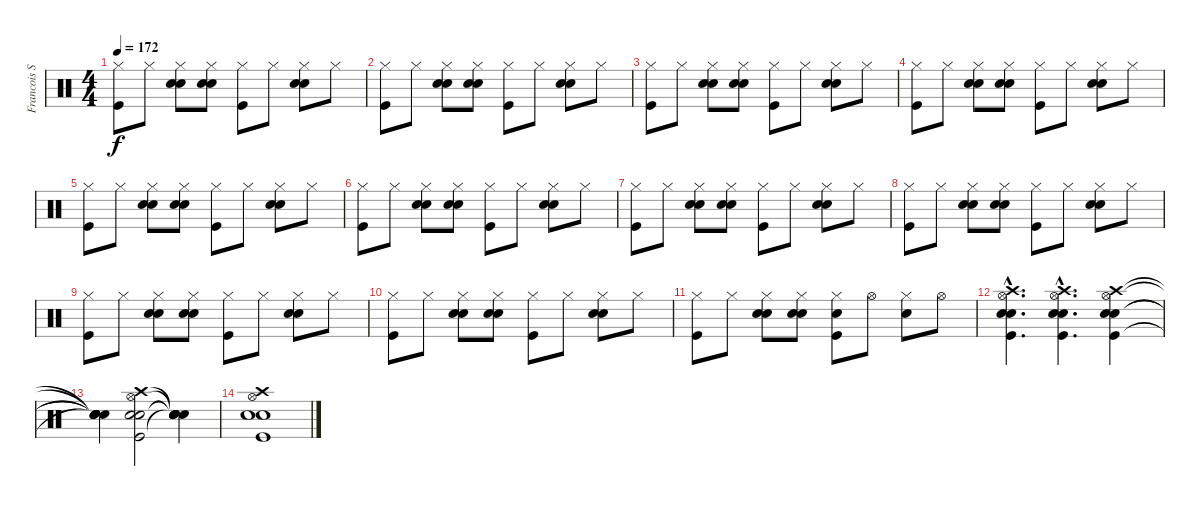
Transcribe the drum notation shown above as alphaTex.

\track ("Francois Soulier" "Francois S") {instrument percussion}
\staff {score}
\articulation defaults
\ts (4 4)
\tempo 172
\clef neutral
\ks c
("Hi-Hat (closed)" "Kick (hit)").8{dy f} "Hi-Hat (closed)".8 ("Electric Snare (hit)" "Hi-Hat (closed)" "Snare (hit) 2").8 ("Electric Snare (hit)" "Hi-Hat (closed)" "Snare (hit) 2").8 ("Hi-Hat (closed)" "Kick (hit)").8 "Hi-Hat (closed)".8 ("Electric Snare (hit)" "Hi-Hat (closed)" "Snare (hit) 2").8 "Hi-Hat (closed)".8 |
("Hi-Hat (closed)" "Kick (hit)").8 "Hi-Hat (closed)".8 ("Electric Snare (hit)" "Hi-Hat (closed)" "Snare (hit) 2").8 ("Electric Snare (hit)" "Hi-Hat (closed)" "Snare (hit) 2").8 ("Hi-Hat (closed)" "Kick (hit)").8 "Hi-Hat (closed)".8 ("Electric Snare (hit)" "Hi-Hat (closed)" "Snare (hit) 2").8 "Hi-Hat (closed)".8 |
("Hi-Hat (closed)" "Kick (hit)").8 "Hi-Hat (closed)".8 ("Electric Snare (hit)" "Hi-Hat (closed)" "Snare (hit) 2").8 ("Electric Snare (hit)" "Hi-Hat (closed)" "Snare (hit) 2").8 ("Hi-Hat (closed)" "Kick (hit)").8 "Hi-Hat (closed)".8 ("Electric Snare (hit)" "Hi-Hat (closed)" "Snare (hit) 2").8 "Hi-Hat (closed)".8 |
("Hi-Hat (closed)" "Kick (hit)").8 "Hi-Hat (closed)".8 ("Electric Snare (hit)" "Hi-Hat (closed)" "Snare (hit) 2").8 ("Electric Snare (hit)" "Hi-Hat (closed)" "Snare (hit) 2").8 ("Hi-Hat (closed)" "Kick (hit)").8 "Hi-Hat (closed)".8 ("Electric Snare (hit)" "Hi-Hat (closed)" "Snare (hit) 2").8 "Hi-Hat (closed)".8 |
("Hi-Hat (closed)" "Kick (hit)").8 "Hi-Hat (closed)".8 ("Electric Snare (hit)" "Hi-Hat (closed)" "Snare (hit) 2").8 ("Electric Snare (hit)" "Hi-Hat (closed)" "Snare (hit) 2").8 ("Hi-Hat (closed)" "Kick (hit)").8 "Hi-Hat (closed)".8 ("Electric Snare (hit)" "Hi-Hat (closed)" "Snare (hit) 2").8 "Hi-Hat (closed)".8 |
("Hi-Hat (closed)" "Kick (hit)").8 "Hi-Hat (closed)".8 ("Electric Snare (hit)" "Hi-Hat (closed)" "Snare (hit) 2").8 ("Electric Snare (hit)" "Hi-Hat (closed)" "Snare (hit) 2").8 ("Hi-Hat (closed)" "Kick (hit)").8 "Hi-Hat (closed)".8 ("Electric Snare (hit)" "Hi-Hat (closed)" "Snare (hit) 2").8 "Hi-Hat (closed)".8 |
("Hi-Hat (closed)" "Kick (hit)").8 "Hi-Hat (closed)".8 ("Electric Snare (hit)" "Hi-Hat (closed)" "Snare (hit) 2").8 ("Electric Snare (hit)" "Hi-Hat (closed)" "Snare (hit) 2").8 ("Hi-Hat (closed)" "Kick (hit)").8 "Hi-Hat (closed)".8 ("Electric Snare (hit)" "Hi-Hat (closed)" "Snare (hit) 2").8 "Hi-Hat (closed)".8 |
("Hi-Hat (closed)" "Kick (hit)").8 "Hi-Hat (closed)".8 ("Electric Snare (hit)" "Hi-Hat (closed)" "Snare (hit) 2").8 ("Electric Snare (hit)" "Hi-Hat (closed)" "Snare (hit) 2").8 ("Hi-Hat (closed)" "Kick (hit)").8 "Hi-Hat (closed)".8 ("Electric Snare (hit)" "Hi-Hat (closed)" "Snare (hit) 2").8 "Hi-Hat (closed)".8 |
("Hi-Hat (closed)" "Kick (hit)").8 "Hi-Hat (closed)".8 ("Electric Snare (hit)" "Hi-Hat (closed)" "Snare (hit) 2").8 ("Electric Snare (hit)" "Hi-Hat (closed)" "Snare (hit) 2").8 ("Hi-Hat (closed)" "Kick (hit)").8 "Hi-Hat (closed)".8 ("Electric Snare (hit)" "Hi-Hat (closed)" "Snare (hit) 2").8 "Hi-Hat (closed)".8 |
("Hi-Hat (closed)" "Kick (hit)").8 "Hi-Hat (closed)".8 ("Electric Snare (hit)" "Hi-Hat (closed)" "Snare (hit) 2").8 ("Electric Snare (hit)" "Hi-Hat (closed)" "Snare (hit) 2").8 ("Hi-Hat (closed)" "Kick (hit)").8 "Hi-Hat (closed)".8 ("Electric Snare (hit)" "Hi-Hat (closed)" "Snare (hit) 2").8 "Hi-Hat (closed)".8 |
("Hi-Hat (closed)" "Kick (hit)").8 "Hi-Hat (closed)".8 ("Electric Snare (hit)" "Hi-Hat (closed)" "Snare (hit) 2").8 ("Electric Snare (hit)" "Hi-Hat (closed)" "Snare (hit) 2").8 ("Snare (hit) 2" "Hi-Hat (closed)" "Kick (hit)").8 "Hi-Hat (open)".8 ("Snare (hit) 2" "Hi-Hat (closed)").8 "Hi-Hat (open)".8 |
("Crash high (hit)"{hac} "Hi-Hat (open)"{hac} "Electric Snare (hit)"{hac} "Snare (hit) 2"{hac} "Kick (hit)"{hac}).4{d} ("Crash high (hit)"{hac} "Hi-Hat (open)"{hac} "Electric Snare (hit)"{hac} "Snare (hit) 2"{hac} "Kick (hit)"{hac}).4{d} ("Crash high (hit)" "Hi-Hat (open)" "Electric Snare (hit)" "Snare (hit) 2" "Kick (hit)").4 |
("Snare (hit)"{t} "Snare (hit)"{t} "Snare (hit)"{t} "Snare (hit)"{t} "Snare (hit)"{t}).4 ("Crash high (hit)" "Hi-Hat (open)" "Electric Snare (hit)" "Snare (hit) 2" "Kick (hit)").2 ("Snare (hit)"{t} "Snare (hit)"{t} "Snare (hit)"{t} "Snare (hit)"{t} "Snare (hit)"{t}).4 |
("Crash high (hit)" "Hi-Hat (open)" "Electric Snare (hit)" "Snare (hit) 2" "Kick (hit)").1
